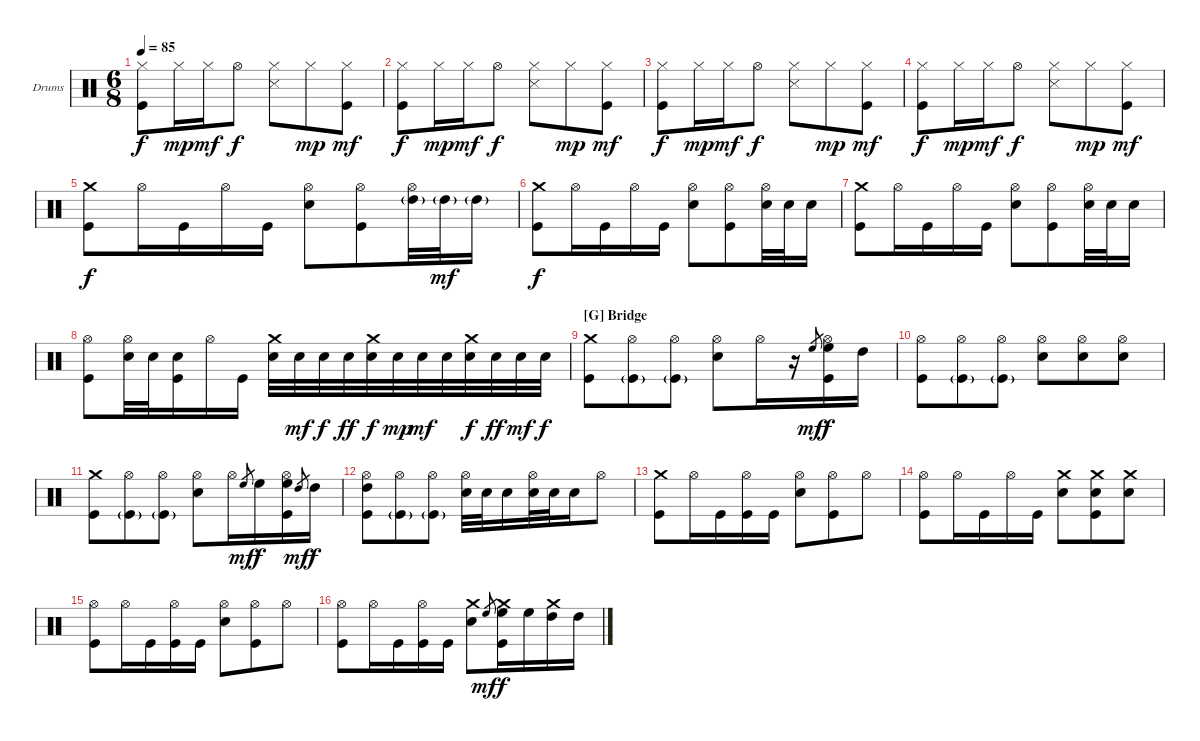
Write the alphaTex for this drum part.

\defaultSystemsLayout 4
\bracketExtendMode groupsimilarinstruments
\firstSystemTrackNameOrientation horizontal
\otherSystemsTrackNameOrientation horizontal
\track ("Drums" "Drums") {instrument percussion}
\staff {score}
\articulation defaults
\ts (6 8)
\tempo 85
\clef neutral
\ks c
("Hi-Hat (closed)" "Kick (hit)").8{dy f} "Hi-Hat (closed)".16{dy mp} "Hi-Hat (closed)".16{dy mf} "Hi-Hat (open)".8{dy f} ("Hi-Hat (closed)" "Snare (side stick) 3").8 "Hi-Hat (closed)".8{dy mp} ("Hi-Hat (closed)" "Kick (hit)").8{dy mf} |
("Hi-Hat (closed)" "Kick (hit)").8{dy f} "Hi-Hat (closed)".16{dy mp} "Hi-Hat (closed)".16{dy mf} "Hi-Hat (open)".8{dy f} ("Hi-Hat (closed)" "Snare (side stick) 3").8 "Hi-Hat (closed)".8{dy mp} ("Hi-Hat (closed)" "Kick (hit)").8{dy mf} |
("Hi-Hat (closed)" "Kick (hit)").8{dy f} "Hi-Hat (closed)".16{dy mp} "Hi-Hat (closed)".16{dy mf} "Hi-Hat (open)".8{dy f} ("Hi-Hat (closed)" "Snare (side stick) 3").8 "Hi-Hat (closed)".8{dy mp} ("Hi-Hat (closed)" "Kick (hit)").8{dy mf} |
("Hi-Hat (closed)" "Kick (hit)").8{dy f} "Hi-Hat (closed)".16{dy mp} "Hi-Hat (closed)".16{dy mf} "Hi-Hat (open)".8{dy f} ("Hi-Hat (closed)" "Snare (side stick) 3").8 "Hi-Hat (closed)".8{dy mp} ("Hi-Hat (closed)" "Kick (hit)").8{dy mf} |
("Crash medium (hit)" "Kick (hit)").8{dy f} "Hi-Hat (open)".16 "Kick (hit)".16 "Hi-Hat (open)".16 "Kick (hit)".16 ("Hi-Hat (open)" "Snare (hit) 2").8 ("Hi-Hat (open)" "Kick (hit)").8 ("Hi-Hat (open)" "High Tom (hit)"{g}).32 "High Tom (hit)"{g}.32{dy mf} "High Tom (hit)"{g}.16 |
("Crash medium (hit)" "Kick (hit)").8{dy f} "Hi-Hat (open)".16 "Kick (hit)".16 "Hi-Hat (open)".16 "Kick (hit)".16 ("Hi-Hat (open)" "Snare (hit) 2").8 ("Hi-Hat (open)" "Kick (hit)").8 ("Hi-Hat (open)" "Snare (hit) 2").32 "Snare (hit) 2".32 "Snare (hit) 2".16 |
("Crash medium (hit)" "Kick (hit)").8 "Hi-Hat (open)".16 "Kick (hit)".16 "Hi-Hat (open)".16 "Kick (hit)".16 ("Hi-Hat (open)" "Snare (hit) 2").8 ("Hi-Hat (open)" "Kick (hit)").8 ("Hi-Hat (open)" "Snare (hit) 2").32 "Snare (hit) 2".32 "Snare (hit) 2".16 |
("Hi-Hat (open)" "Kick (hit)").8 ("Hi-Hat (open)" "Snare (hit) 2").32 "Snare (hit) 2".32 ("Snare (hit) 2" "Kick (hit)").16 "Hi-Hat (open)".16 "Kick (hit)".16 ("Crash medium (hit)" "Snare (hit) 2").32 "Snare (hit) 2".32{dy mf} "Snare (hit) 2".32{dy f} "Snare (hit) 2".32{dy ff} ("Crash medium (hit)" "Snare (hit) 2").32{dy f} "Snare (hit) 2".32{dy mp} "Snare (hit) 2".32{dy mf} "Snare (hit) 2".32 ("Crash medium (hit)" "Snare (hit) 2").32{dy f} "Snare (hit) 2".32{dy ff} "Snare (hit) 2".32{dy mf} "Snare (hit) 2".32{dy f} |
\section ("G" "Bridge")
("Crash medium (hit)" "Kick (hit)").8 ("Hi-Hat (open)" "Kick (hit)"{g}).8 ("Hi-Hat (open)" "Kick (hit)"{g}).8 ("Hi-Hat (open)" "Snare (hit) 2").8 "Hi-Hat (open)".16 r.16 "High Floor Tom (hit)".8{gr dy mf} ("Hi-Hat (open)" "High Floor Tom (hit)" "Kick (hit)").16{dy f} "High Tom (hit)".16 |
("Hi-Hat (open)" "Kick (hit)").8 ("Hi-Hat (open)" "Kick (hit)"{g}).8 ("Hi-Hat (open)" "Kick (hit)"{g}).8 ("Hi-Hat (open)" "Snare (hit) 2").8 ("Hi-Hat (open)" "Snare (hit) 2").8 ("Hi-Hat (open)" "Snare (hit) 2").8 |
("Crash medium (hit)" "Kick (hit)").8 ("Hi-Hat (open)" "Kick (hit)"{g}).8 ("Hi-Hat (open)" "Kick (hit)"{g}).8 ("Hi-Hat (open)" "Snare (hit) 2").8 "Hi-Hat (open)".16 "High Floor Tom (hit)".8{gr dy mf} "High Floor Tom (hit)".16{dy f} ("Hi-Hat (open)" "High Floor Tom (hit)" "Kick (hit)").16 "High Tom (hit)".8{gr dy mf} "High Tom (hit)".16{dy f} |
("Hi-Hat (open)" "High Tom (hit)" "Kick (hit)").8 ("Hi-Hat (open)" "Kick (hit)"{g}).8 ("Hi-Hat (open)" "Kick (hit)"{g}).8 ("Hi-Hat (open)" "Snare (hit) 2").32 "Snare (hit) 2".32 "Snare (hit) 2".16 ("Hi-Hat (open)" "Snare (hit) 2").32 "Snare (hit) 2".32 "Snare (hit) 2".16 "Hi-Hat (open)".8 |
("Crash medium (hit)" "Kick (hit)").8 "Hi-Hat (open)".16 "Kick (hit)".16 ("Hi-Hat (open)" "Kick (hit)").16 "Kick (hit)".16 ("Hi-Hat (open)" "Snare (hit) 2").8 ("Hi-Hat (open)" "Kick (hit)").8 "Hi-Hat (open)".8 |
("Hi-Hat (open)" "Kick (hit)").8 "Hi-Hat (open)".16 "Kick (hit)".16 "Hi-Hat (open)".16 "Kick (hit)".16 ("Crash medium (hit)" "Snare (hit) 2").8 ("Crash medium (hit)" "Snare (hit) 2" "Kick (hit)").8 ("Crash medium (hit)" "Snare (hit) 2").8 |
("Hi-Hat (open)" "Kick (hit)").8 "Hi-Hat (open)".16 "Kick (hit)".16 ("Hi-Hat (open)" "Kick (hit)").16 "Kick (hit)".16 ("Hi-Hat (open)" "Snare (hit) 2").8 ("Hi-Hat (open)" "Kick (hit)").8 "Hi-Hat (open)".8 |
("Hi-Hat (open)" "Kick (hit)").8 "Hi-Hat (open)".16 "Kick (hit)".16 ("Hi-Hat (open)" "Kick (hit)").16 "Kick (hit)".16 ("Crash medium (hit)" "Snare (hit) 2").8 "High Floor Tom (hit)".8{gr dy mf} ("Crash medium (hit)" "High Floor Tom (hit)" "Kick (hit)").16{dy f} "High Floor Tom (hit)".16 ("Crash medium (hit)" "High Tom (hit)").16 "High Tom (hit)".16
